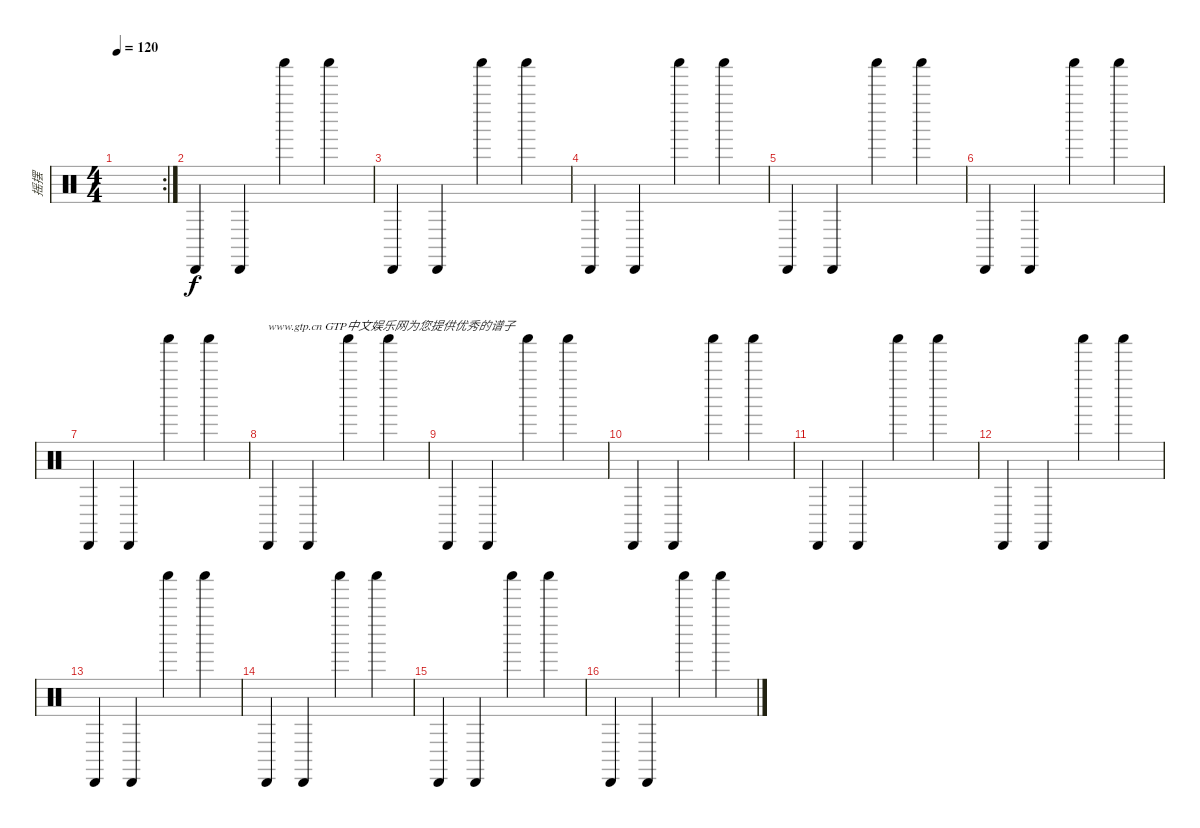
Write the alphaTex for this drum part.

\track ("摇摆" "摇摆") {instrument percussion}
\staff {score}
\articulation defaults
\rc 2
\ts (4 4)
\tempo 120
\clef neutral
\ks c
|
"Cabasa (hit)".4 "Cabasa (hit)".4 "Shaker (hit)".4 "Shaker (hit)".4 |
"Cabasa (hit)".4 "Cabasa (hit)".4 "Shaker (hit)".4 "Shaker (hit)".4 |
"Cabasa (hit)".4 "Cabasa (hit)".4 "Shaker (hit)".4 "Shaker (hit)".4 |
"Cabasa (hit)".4 "Cabasa (hit)".4 "Shaker (hit)".4 "Shaker (hit)".4 |
"Cabasa (hit)".4 "Cabasa (hit)".4 "Shaker (hit)".4 "Shaker (hit)".4 |
"Cabasa (hit)".4 "Cabasa (hit)".4 "Shaker (hit)".4 "Shaker (hit)".4 |
"Cabasa (hit)".4{txt "www.gtp.cn GTP中文娱乐网为您提供优秀的谱子"} "Cabasa (hit)".4 "Shaker (hit)".4 "Shaker (hit)".4 |
"Cabasa (hit)".4 "Cabasa (hit)".4 "Shaker (hit)".4 "Shaker (hit)".4 |
"Cabasa (hit)".4 "Cabasa (hit)".4 "Shaker (hit)".4 "Shaker (hit)".4 |
"Cabasa (hit)".4 "Cabasa (hit)".4 "Shaker (hit)".4 "Shaker (hit)".4 |
"Cabasa (hit)".4 "Cabasa (hit)".4 "Shaker (hit)".4 "Shaker (hit)".4 |
"Cabasa (hit)".4 "Cabasa (hit)".4 "Shaker (hit)".4 "Shaker (hit)".4 |
"Cabasa (hit)".4 "Cabasa (hit)".4 "Shaker (hit)".4 "Shaker (hit)".4 |
"Cabasa (hit)".4 "Cabasa (hit)".4 "Shaker (hit)".4 "Shaker (hit)".4 |
"Cabasa (hit)".4 "Cabasa (hit)".4 "Shaker (hit)".4 "Shaker (hit)".4
